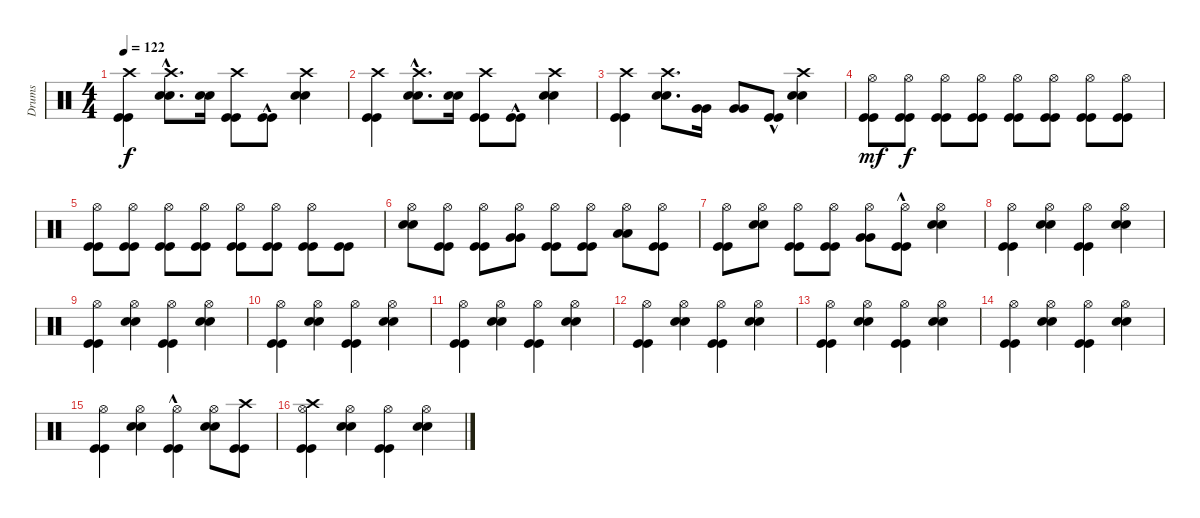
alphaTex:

\track ("Drums" "Drums") {instrument percussion}
\staff {score}
\articulation defaults
\ts (4 4)
\tempo 122
\clef neutral
\ks c
("Kick (hit)" "Kick (hit)" "Crash high (hit)").4{dy f} ("Snare (hit) 2"{hac} "Snare (hit) 2"{hac} "Crash high (hit)").8{d} ("Snare (hit) 2" "Snare (hit) 2").16 ("Kick (hit)" "Kick (hit)" "Crash high (hit)").8 ("Kick (hit)"{hac} "Kick (hit)"{hac}).8 ("Snare (hit) 2" "Snare (hit) 2" "Crash high (hit)").4 |
("Kick (hit)" "Kick (hit)" "Crash high (hit)").4 ("Snare (hit) 2"{hac} "Snare (hit) 2"{hac} "Crash high (hit)").8{d} ("Snare (hit) 2" "Snare (hit) 2").16 ("Kick (hit)" "Kick (hit)" "Crash high (hit)").8 ("Kick (hit)"{hac} "Kick (hit)"{hac}).8 ("Snare (hit) 2" "Snare (hit) 2" "Crash high (hit)").4 |
("Kick (hit)" "Kick (hit)" "Crash high (hit)").4 ("Snare (hit) 2" "Snare (hit) 2" "Crash high (hit)").8{d} ("Very Low Tom (hit)" "Very Low Tom (hit)").16 ("Very Low Tom (hit)" "Very Low Tom (hit)").8 ("Kick (hit)"{hac} "Kick (hit)"{hac}).8 ("Snare (hit) 2" "Snare (hit) 2" "Crash high (hit)").4 |
("Kick (hit)" "Kick (hit)" "Hi-Hat (open)").8{dy mf} ("Kick (hit)" "Kick (hit)" "Hi-Hat (open)").8{dy f} ("Kick (hit)" "Kick (hit)" "Hi-Hat (open)").8 ("Kick (hit)" "Kick (hit)" "Hi-Hat (open)").8 ("Kick (hit)" "Kick (hit)" "Hi-Hat (open)").8 ("Kick (hit)" "Kick (hit)" "Hi-Hat (open)").8 ("Kick (hit)" "Kick (hit)" "Hi-Hat (open)").8 ("Kick (hit)" "Kick (hit)" "Hi-Hat (open)").8 |
("Kick (hit)" "Kick (hit)" "Hi-Hat (open)").8 ("Kick (hit)" "Kick (hit)" "Hi-Hat (open)").8 ("Kick (hit)" "Kick (hit)" "Hi-Hat (open)").8 ("Kick (hit)" "Kick (hit)" "Hi-Hat (open)").8 ("Kick (hit)" "Kick (hit)" "Hi-Hat (open)").8 ("Kick (hit)" "Kick (hit)" "Hi-Hat (open)").8 ("Kick (hit)" "Kick (hit)" "Hi-Hat (open)").8 ("Kick (hit)" "Kick (hit)").8 |
("Snare (hit) 2" "Snare (hit) 2" "Hi-Hat (open)").8 ("Kick (hit)" "Kick (hit)" "Hi-Hat (open)").8 ("Kick (hit)" "Kick (hit)" "Hi-Hat (open)").8 ("Very Low Tom (hit)" "Very Low Tom (hit)" "Hi-Hat (open)").8 ("Kick (hit)" "Kick (hit)" "Hi-Hat (open)").8 ("Kick (hit)" "Kick (hit)" "Hi-Hat (open)").8 ("Low Floor Tom (hit)" "Low Floor Tom (hit)" "Hi-Hat (open)").8 ("Kick (hit)" "Kick (hit)" "Hi-Hat (open)").8 |
("Kick (hit)" "Kick (hit)" "Hi-Hat (open)").8 ("Snare (hit) 2" "Snare (hit) 2" "Hi-Hat (open)").8 ("Kick (hit)" "Kick (hit)" "Hi-Hat (open)").8 ("Kick (hit)" "Kick (hit)" "Hi-Hat (open)").8 ("Very Low Tom (hit)" "Very Low Tom (hit)" "Hi-Hat (open)").8 ("Kick (hit)"{hac} "Kick (hit)"{hac} "Hi-Hat (open)").8 ("Snare (hit) 2" "Snare (hit) 2" "Hi-Hat (open)").4 |
("Kick (hit)" "Kick (hit)" "Hi-Hat (open)").4 ("Snare (hit) 2" "Snare (hit) 2" "Hi-Hat (open)").4 ("Kick (hit)" "Kick (hit)" "Hi-Hat (open)").4 ("Snare (hit) 2" "Snare (hit) 2" "Hi-Hat (open)").4 |
("Kick (hit)" "Kick (hit)" "Hi-Hat (open)").4 ("Snare (hit) 2" "Snare (hit) 2" "Hi-Hat (open)").4 ("Kick (hit)" "Kick (hit)" "Hi-Hat (open)").4 ("Snare (hit) 2" "Snare (hit) 2" "Hi-Hat (open)").4 |
("Kick (hit)" "Kick (hit)" "Hi-Hat (open)").4 ("Snare (hit) 2" "Snare (hit) 2" "Hi-Hat (open)").4 ("Kick (hit)" "Kick (hit)" "Hi-Hat (open)").4 ("Snare (hit) 2" "Snare (hit) 2" "Hi-Hat (open)").4 |
("Kick (hit)" "Kick (hit)" "Hi-Hat (open)").4 ("Snare (hit) 2" "Snare (hit) 2" "Hi-Hat (open)").4 ("Kick (hit)" "Kick (hit)" "Hi-Hat (open)").4 ("Snare (hit) 2" "Snare (hit) 2" "Hi-Hat (open)").4 |
("Kick (hit)" "Kick (hit)" "Hi-Hat (open)").4 ("Snare (hit) 2" "Snare (hit) 2" "Hi-Hat (open)").4 ("Kick (hit)" "Kick (hit)" "Hi-Hat (open)").4 ("Snare (hit) 2" "Snare (hit) 2" "Hi-Hat (open)").4 |
("Kick (hit)" "Kick (hit)" "Hi-Hat (open)").4 ("Snare (hit) 2" "Snare (hit) 2" "Hi-Hat (open)").4 ("Kick (hit)" "Kick (hit)" "Hi-Hat (open)").4 ("Snare (hit) 2" "Snare (hit) 2" "Hi-Hat (open)").4 |
("Kick (hit)" "Kick (hit)" "Hi-Hat (open)").4 ("Snare (hit) 2" "Snare (hit) 2" "Hi-Hat (open)").4 ("Kick (hit)" "Kick (hit)" "Hi-Hat (open)").4 ("Snare (hit) 2" "Snare (hit) 2" "Hi-Hat (open)").4 |
("Kick (hit)" "Kick (hit)" "Hi-Hat (open)").4 ("Snare (hit) 2" "Snare (hit) 2" "Hi-Hat (open)").4 ("Kick (hit)"{hac} "Kick (hit)"{hac} "Hi-Hat (open)").4 ("Snare (hit) 2" "Snare (hit) 2" "Hi-Hat (open)").8 ("Kick (hit)" "Kick (hit)" "Crash high (hit)").8 |
("Kick (hit)" "Kick (hit)" "Hi-Hat (open)" "Crash high (hit)").4 ("Snare (hit) 2" "Snare (hit) 2" "Hi-Hat (open)").4 ("Kick (hit)" "Kick (hit)" "Hi-Hat (open)").4 ("Snare (hit) 2" "Snare (hit) 2" "Hi-Hat (open)").4
